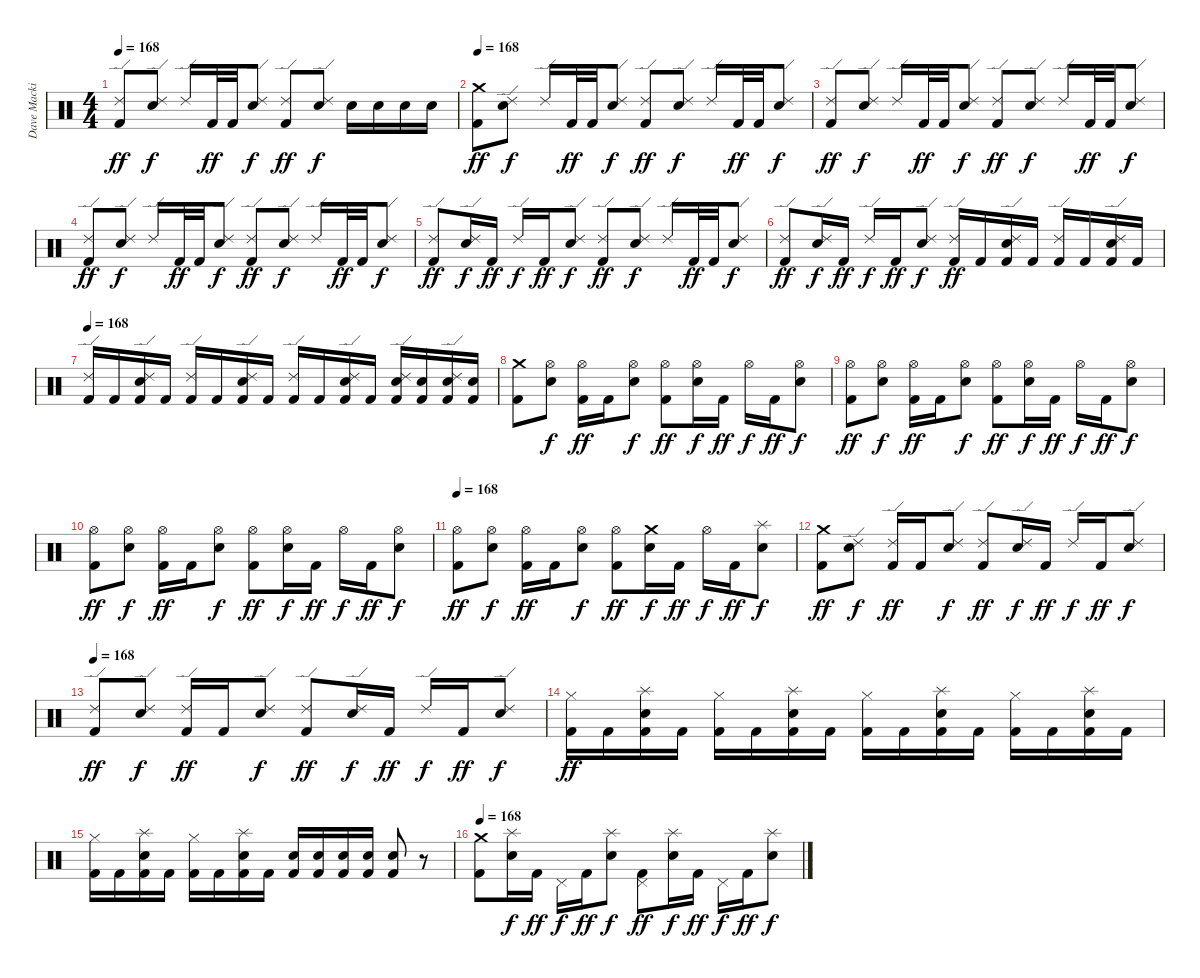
\track ("Dave Mackintosh" "Dave Macki") {instrument percussion}
\staff {score}
\articulation defaults
\ts (4 4)
\tempo 168
\clef neutral
\ks c
("Ride (edge) 2" "Kick (hit) 2").8{dy ff} ("Ride (edge) 2" "Electric Snare (hit)").8{dy f} "Ride (edge) 2".16 "Kick (hit) 2".32{dy ff} "Kick (hit) 2".32 ("Ride (edge) 2" "Electric Snare (hit)").8{dy f} ("Ride (edge) 2" "Kick (hit) 2").8{dy ff} ("Ride (edge) 2" "Electric Snare (hit)").8{dy f} "Electric Snare (hit)".16 "Electric Snare (hit)".16 "Electric Snare (hit)".16 "Electric Snare (hit)".16 |
\tempo 168
("Crash medium (hit)" "Kick (hit) 2").8{dy ff} ("Ride (edge) 2" "Electric Snare (hit)").8{dy f} "Ride (edge) 2".16 "Kick (hit) 2".32{dy ff} "Kick (hit) 2".32 ("Ride (edge) 2" "Electric Snare (hit)").8{dy f} ("Ride (edge) 2" "Kick (hit) 2").8{dy ff} ("Ride (edge) 2" "Electric Snare (hit)").8{dy f} "Ride (edge) 2".16 "Kick (hit) 2".32{dy ff} "Kick (hit) 2".32 ("Ride (edge) 2" "Electric Snare (hit)").8{dy f} |
("Ride (edge) 2" "Kick (hit) 2").8{dy ff} ("Ride (edge) 2" "Electric Snare (hit)").8{dy f} "Ride (edge) 2".16 "Kick (hit) 2".32{dy ff} "Kick (hit) 2".32 ("Ride (edge) 2" "Electric Snare (hit)").8{dy f} ("Ride (edge) 2" "Kick (hit) 2").8{dy ff} ("Ride (edge) 2" "Electric Snare (hit)").8{dy f} "Ride (edge) 2".16 "Kick (hit) 2".32{dy ff} "Kick (hit) 2".32 ("Ride (edge) 2" "Electric Snare (hit)").8{dy f} |
("Ride (edge) 2" "Kick (hit) 2").8{dy ff} ("Ride (edge) 2" "Electric Snare (hit)").8{dy f} "Ride (edge) 2".16 "Kick (hit) 2".32{dy ff} "Kick (hit) 2".32 ("Ride (edge) 2" "Electric Snare (hit)").8{dy f} ("Ride (edge) 2" "Kick (hit) 2").8{dy ff} ("Ride (edge) 2" "Electric Snare (hit)").8{dy f} "Ride (edge) 2".16 "Kick (hit) 2".32{dy ff} "Kick (hit) 2".32 ("Ride (edge) 2" "Electric Snare (hit)").8{dy f} |
("Ride (edge) 2" "Kick (hit) 2").8{dy ff} ("Ride (edge) 2" "Electric Snare (hit)").16{dy f} "Kick (hit) 2".16{dy ff} "Ride (edge) 2".16{dy f} "Kick (hit) 2".16{dy ff} ("Ride (edge) 2" "Electric Snare (hit)").8{dy f} ("Ride (edge) 2" "Kick (hit) 2").8{dy ff} ("Ride (edge) 2" "Electric Snare (hit)").8{dy f} "Ride (edge) 2".16 "Kick (hit) 2".32{dy ff} "Kick (hit) 2".32 ("Ride (edge) 2" "Electric Snare (hit)").8{dy f} |
("Ride (edge) 2" "Kick (hit) 2").8{dy ff} ("Ride (edge) 2" "Electric Snare (hit)").16{dy f} "Kick (hit) 2".16{dy ff} "Ride (edge) 2".16{dy f} "Kick (hit) 2".16{dy ff} ("Ride (edge) 2" "Electric Snare (hit)").8{dy f} ("Ride (edge) 2" "Kick (hit) 2").16{dy ff} "Kick (hit) 2".16 ("Ride (edge) 2" "Electric Snare (hit)" "Kick (hit) 2").16 "Kick (hit) 2".16 ("Ride (edge) 2" "Kick (hit) 2").16 "Kick (hit) 2".16 ("Ride (edge) 2" "Electric Snare (hit)" "Kick (hit) 2").16 "Kick (hit) 2".16 |
\tempo 168
("Ride (edge) 2" "Kick (hit) 2").16 "Kick (hit) 2".16 ("Ride (edge) 2" "Electric Snare (hit)" "Kick (hit) 2").16 "Kick (hit) 2".16 ("Ride (edge) 2" "Kick (hit) 2").16 "Kick (hit) 2".16 ("Ride (edge) 2" "Electric Snare (hit)" "Kick (hit) 2").16 "Kick (hit) 2".16 ("Ride (edge) 2" "Kick (hit) 2").16 "Kick (hit) 2".16 ("Ride (edge) 2" "Electric Snare (hit)" "Kick (hit) 2").16 "Kick (hit) 2".16 ("Ride (edge) 2" "Electric Snare (hit)" "Kick (hit) 2").16 ("Electric Snare (hit)" "Kick (hit) 2").16 ("Ride (edge) 2" "Electric Snare (hit)" "Kick (hit) 2").16 ("Electric Snare (hit)" "Kick (hit) 2").16 |
("Crash medium (hit)" "Kick (hit) 2").8 ("Hi-Hat (open)" "Electric Snare (hit)").8{dy f} ("Hi-Hat (open)" "Kick (hit) 2").16{dy ff} "Kick (hit) 2".16 ("Hi-Hat (open)" "Electric Snare (hit)").8{dy f} ("Hi-Hat (open)" "Kick (hit) 2").8{dy ff} ("Hi-Hat (open)" "Electric Snare (hit)").16{dy f} "Kick (hit) 2".16{dy ff} "Hi-Hat (open)".16{dy f} "Kick (hit) 2".16{dy ff} ("Hi-Hat (open)" "Electric Snare (hit)").8{dy f} |
("Hi-Hat (open)" "Kick (hit) 2").8{dy ff} ("Hi-Hat (open)" "Electric Snare (hit)").8{dy f} ("Hi-Hat (open)" "Kick (hit) 2").16{dy ff} "Kick (hit) 2".16 ("Hi-Hat (open)" "Electric Snare (hit)").8{dy f} ("Hi-Hat (open)" "Kick (hit) 2").8{dy ff} ("Hi-Hat (open)" "Electric Snare (hit)").16{dy f} "Kick (hit) 2".16{dy ff} "Hi-Hat (open)".16{dy f} "Kick (hit) 2".16{dy ff} ("Hi-Hat (open)" "Electric Snare (hit)").8{dy f} |
("Hi-Hat (open)" "Kick (hit) 2").8{dy ff} ("Hi-Hat (open)" "Electric Snare (hit)").8{dy f} ("Hi-Hat (open)" "Kick (hit) 2").16{dy ff} "Kick (hit) 2".16 ("Hi-Hat (open)" "Electric Snare (hit)").8{dy f} ("Hi-Hat (open)" "Kick (hit) 2").8{dy ff} ("Hi-Hat (open)" "Electric Snare (hit)").16{dy f} "Kick (hit) 2".16{dy ff} "Hi-Hat (open)".16{dy f} "Kick (hit) 2".16{dy ff} ("Hi-Hat (open)" "Electric Snare (hit)").8{dy f} |
\tempo 168
("Hi-Hat (open)" "Kick (hit) 2").8{dy ff} ("Hi-Hat (open)" "Electric Snare (hit)").8{dy f} ("Hi-Hat (open)" "Kick (hit) 2").16{dy ff} "Kick (hit) 2".16 ("Hi-Hat (open)" "Electric Snare (hit)").8{dy f} ("Hi-Hat (open)" "Kick (hit) 2").8{dy ff} ("Crash medium (hit)" "Electric Snare (hit)").16{dy f} "Kick (hit) 2".16{dy ff} "Hi-Hat (open)".16{dy f} "Kick (hit) 2".16{dy ff} ("Splash (hit)" "Electric Snare (hit)").8{dy f} |
("Crash medium (hit)" "Kick (hit) 2").8{dy ff} ("Ride (edge) 2" "Electric Snare (hit)").8{dy f} ("Ride (edge) 2" "Kick (hit) 2").16{dy ff} "Kick (hit) 2".16 ("Ride (edge) 2" "Electric Snare (hit)").8{dy f} ("Ride (edge) 2" "Kick (hit) 2").8{dy ff} ("Ride (edge) 2" "Electric Snare (hit)").16{dy f} "Kick (hit) 2".16{dy ff} "Ride (edge) 2".16{dy f} "Kick (hit) 2".16{dy ff} ("Ride (edge) 2" "Electric Snare (hit)").8{dy f} |
\tempo 168
("Ride (edge) 2" "Kick (hit) 2").8{dy ff} ("Ride (edge) 2" "Electric Snare (hit)").8{dy f} ("Ride (edge) 2" "Kick (hit) 2").16{dy ff} "Kick (hit) 2".16 ("Ride (edge) 2" "Electric Snare (hit)").8{dy f} ("Ride (edge) 2" "Kick (hit) 2").8{dy ff} ("Ride (edge) 2" "Electric Snare (hit)").16{dy f} "Kick (hit) 2".16{dy ff} "Ride (edge) 2".16{dy f} "Kick (hit) 2".16{dy ff} ("Ride (edge) 2" "Electric Snare (hit)").8{dy f} |
("Hi-Hat (closed)" "Kick (hit) 2").16{dy ff} "Kick (hit) 2".16 ("Splash (hit)" "Electric Snare (hit)" "Kick (hit) 2").16 "Kick (hit) 2".16 ("Hi-Hat (closed)" "Kick (hit) 2").16 "Kick (hit) 2".16 ("Splash (hit)" "Electric Snare (hit)" "Kick (hit) 2").16 "Kick (hit) 2".16 ("Hi-Hat (closed)" "Kick (hit) 2").16 "Kick (hit) 2".16 ("Splash (hit)" "Electric Snare (hit)" "Kick (hit) 2").16 "Kick (hit) 2".16 ("Hi-Hat (closed)" "Kick (hit) 2").16 "Kick (hit) 2".16 ("Splash (hit)" "Electric Snare (hit)" "Kick (hit) 2").16 "Kick (hit) 2".16 |
("Hi-Hat (closed)" "Kick (hit) 2").16 "Kick (hit) 2".16 ("Splash (hit)" "Electric Snare (hit)" "Kick (hit) 2").16 "Kick (hit) 2".16 ("Hi-Hat (closed)" "Kick (hit) 2").16 "Kick (hit) 2".16 ("Splash (hit)" "Electric Snare (hit)" "Kick (hit) 2").16 "Kick (hit) 2".16 ("Electric Snare (hit)" "Kick (hit) 2").16 ("Electric Snare (hit)" "Kick (hit) 2").16 ("Electric Snare (hit)" "Kick (hit) 2").16 ("Electric Snare (hit)" "Kick (hit) 2").16 ("Electric Snare (hit)" "Kick (hit) 2").8 r.8 |
\tempo 168
("Crash medium (hit)" "Kick (hit) 2").8 ("Splash (hit)" "Electric Snare (hit)").16{dy f} "Kick (hit) 2".16{dy ff} "Pedal Hi-Hat (hit)".16{dy f} "Kick (hit) 2".16{dy ff} ("Splash (hit)" "Electric Snare (hit)").8{dy f} ("Pedal Hi-Hat (hit)" "Kick (hit) 2").8{dy ff} ("Splash (hit)" "Electric Snare (hit)").16{dy f} "Kick (hit) 2".16{dy ff} "Pedal Hi-Hat (hit)".16{dy f} "Kick (hit) 2".16{dy ff} ("Splash (hit)" "Electric Snare (hit)").8{dy f}
